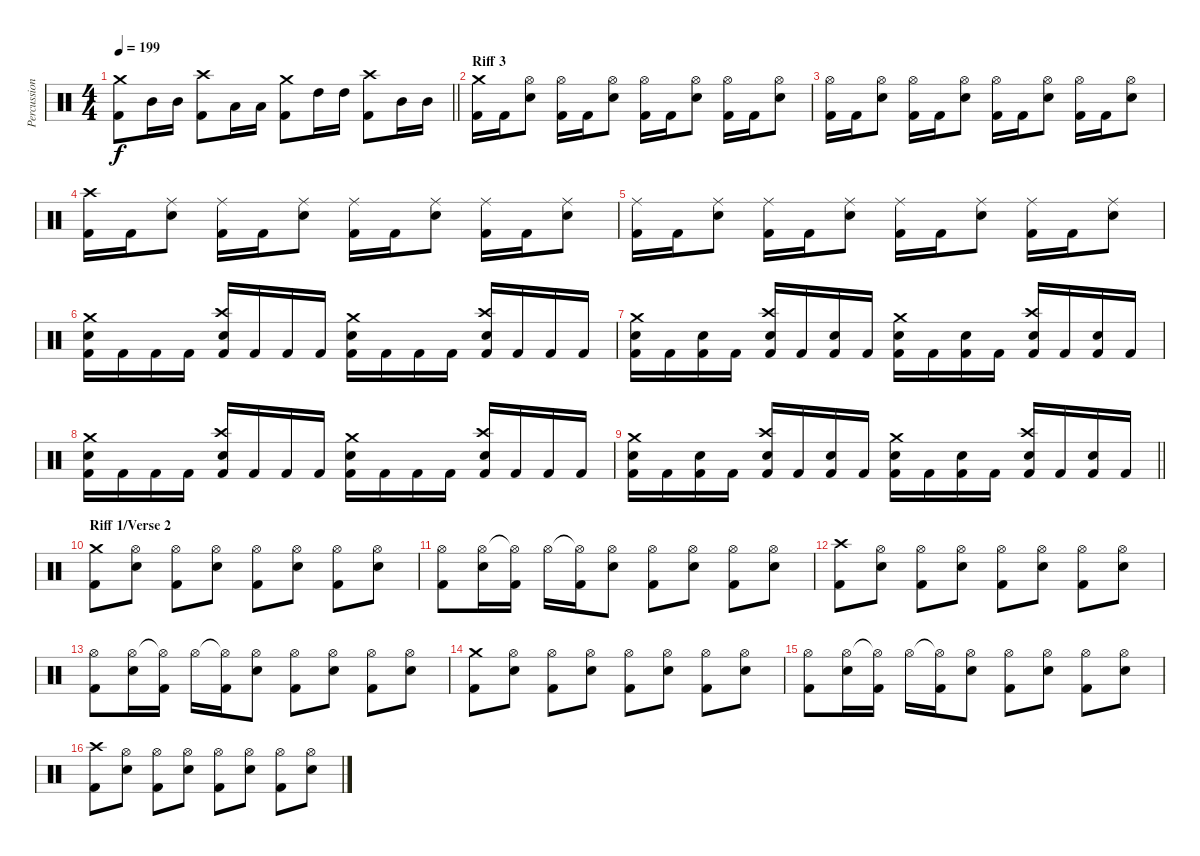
\track ("Percussion" "Percussion") {instrument percussion}
\staff {score}
\articulation defaults
\ts (4 4)
\tempo 199
\clef neutral
\barLineRight lightlight
\ks c
("Crash medium (hit)" "Kick (hit) 2").8{dy f} "Mid Tom (hit)".16 "Mid Tom (hit)".16 ("Crash high (hit)" "Kick (hit) 2").8 "Low Tom (hit)".16 "Low Tom (hit)".16 ("Crash medium (hit)" "Kick (hit) 2").8 "High Tom (hit)".16 "High Tom (hit)".16 ("Crash high (hit)" "Kick (hit) 2").8 "Mid Tom (hit)".16 "Mid Tom (hit)".16 |
\section ("" "Riff 3")
("Crash medium (hit)" "Kick (hit) 2").16 "Kick (hit) 2".16 ("Hi-Hat (open)" "Electric Snare (hit)").8 ("Hi-Hat (open)" "Kick (hit) 2").16 "Kick (hit) 2".16 ("Hi-Hat (open)" "Electric Snare (hit)").8 ("Hi-Hat (open)" "Kick (hit) 2").16 "Kick (hit) 2".16 ("Hi-Hat (open)" "Electric Snare (hit)").8 ("Hi-Hat (open)" "Kick (hit) 2").16 "Kick (hit) 2".16 ("Hi-Hat (open)" "Electric Snare (hit)").8 |
("Hi-Hat (open)" "Kick (hit) 2").16 "Kick (hit) 2".16 ("Hi-Hat (open)" "Electric Snare (hit)").8 ("Hi-Hat (open)" "Kick (hit) 2").16 "Kick (hit) 2".16 ("Hi-Hat (open)" "Electric Snare (hit)").8 ("Hi-Hat (open)" "Kick (hit) 2").16 "Kick (hit) 2".16 ("Hi-Hat (open)" "Electric Snare (hit)").8 ("Hi-Hat (open)" "Kick (hit) 2").16 "Kick (hit) 2".16 ("Hi-Hat (open)" "Electric Snare (hit)").8 |
("Crash high (hit)" "Kick (hit) 2").16 "Kick (hit) 2".16 ("Ride (middle)" "Electric Snare (hit)").8 ("Ride (middle)" "Kick (hit) 2").16 "Kick (hit) 2".16 ("Ride (middle)" "Electric Snare (hit)").8 ("Ride (middle)" "Kick (hit) 2").16 "Kick (hit) 2".16 ("Ride (middle)" "Electric Snare (hit)").8 ("Ride (middle)" "Kick (hit) 2").16 "Kick (hit) 2".16 ("Ride (middle)" "Electric Snare (hit)").8 |
("Ride (middle)" "Kick (hit) 2").16 "Kick (hit) 2".16 ("Ride (middle)" "Electric Snare (hit)").8 ("Ride (middle)" "Kick (hit) 2").16 "Kick (hit) 2".16 ("Ride (middle)" "Electric Snare (hit)").8 ("Ride (middle)" "Kick (hit) 2").16 "Kick (hit) 2".16 ("Ride (middle)" "Electric Snare (hit)").8 ("Ride (middle)" "Kick (hit) 2").16 "Kick (hit) 2".16 ("Ride (middle)" "Electric Snare (hit)").8 |
("Crash medium (hit)" "Electric Snare (hit)" "Kick (hit) 2").16 "Kick (hit) 2".16 "Kick (hit) 2".16 "Kick (hit) 2".16 ("Crash high (hit)" "Electric Snare (hit)" "Kick (hit) 2").16 "Kick (hit) 2".16 "Kick (hit) 2".16 "Kick (hit) 2".16 ("Crash medium (hit)" "Electric Snare (hit)" "Kick (hit) 2").16 "Kick (hit) 2".16 "Kick (hit) 2".16 "Kick (hit) 2".16 ("Crash high (hit)" "Electric Snare (hit)" "Kick (hit) 2").16 "Kick (hit) 2".16 "Kick (hit) 2".16 "Kick (hit) 2".16 |
("Crash medium (hit)" "Electric Snare (hit)" "Kick (hit) 2").16 "Kick (hit) 2".16 ("Electric Snare (hit)" "Kick (hit) 2").16 "Kick (hit) 2".16 ("Crash high (hit)" "Electric Snare (hit)" "Kick (hit) 2").16 "Kick (hit) 2".16 ("Electric Snare (hit)" "Kick (hit) 2").16 "Kick (hit) 2".16 ("Crash medium (hit)" "Electric Snare (hit)" "Kick (hit) 2").16 "Kick (hit) 2".16 ("Electric Snare (hit)" "Kick (hit) 2").16 "Kick (hit) 2".16 ("Crash high (hit)" "Electric Snare (hit)" "Kick (hit) 2").16 "Kick (hit) 2".16 ("Electric Snare (hit)" "Kick (hit) 2").16 "Kick (hit) 2".16 |
("Crash medium (hit)" "Electric Snare (hit)" "Kick (hit) 2").16 "Kick (hit) 2".16 "Kick (hit) 2".16 "Kick (hit) 2".16 ("Crash high (hit)" "Electric Snare (hit)" "Kick (hit) 2").16 "Kick (hit) 2".16 "Kick (hit) 2".16 "Kick (hit) 2".16 ("Crash medium (hit)" "Electric Snare (hit)" "Kick (hit) 2").16 "Kick (hit) 2".16 "Kick (hit) 2".16 "Kick (hit) 2".16 ("Crash high (hit)" "Electric Snare (hit)" "Kick (hit) 2").16 "Kick (hit) 2".16 "Kick (hit) 2".16 "Kick (hit) 2".16 |
\barLineRight lightlight
("Crash medium (hit)" "Electric Snare (hit)" "Kick (hit) 2").16 "Kick (hit) 2".16 ("Electric Snare (hit)" "Kick (hit) 2").16 "Kick (hit) 2".16 ("Crash high (hit)" "Electric Snare (hit)" "Kick (hit) 2").16 "Kick (hit) 2".16 ("Electric Snare (hit)" "Kick (hit) 2").16 "Kick (hit) 2".16 ("Crash medium (hit)" "Electric Snare (hit)" "Kick (hit) 2").16 "Kick (hit) 2".16 ("Electric Snare (hit)" "Kick (hit) 2").16 "Kick (hit) 2".16 ("Crash high (hit)" "Electric Snare (hit)" "Kick (hit) 2").16 "Kick (hit) 2".16 ("Electric Snare (hit)" "Kick (hit) 2").16 "Kick (hit) 2".16 |
\section ("" "Riff 1/Verse 2")
("Crash medium (hit)" "Kick (hit) 2").8 ("Hi-Hat (open)" "Electric Snare (hit)").8 ("Hi-Hat (open)" "Kick (hit) 2").8 ("Hi-Hat (open)" "Electric Snare (hit)").8 ("Hi-Hat (open)" "Kick (hit) 2").8 ("Hi-Hat (open)" "Electric Snare (hit)").8 ("Hi-Hat (open)" "Kick (hit) 2").8 ("Hi-Hat (open)" "Electric Snare (hit)").8 |
("Hi-Hat (open)" "Kick (hit) 2").8 ("Hi-Hat (open)" "Electric Snare (hit)").16 ("Hi-Hat (open)"{t} "Kick (hit) 2").16 "Hi-Hat (open)".16 ("Hi-Hat (open)"{t} "Kick (hit) 2").16 ("Hi-Hat (open)" "Electric Snare (hit)").8 ("Hi-Hat (open)" "Kick (hit) 2").8 ("Hi-Hat (open)" "Electric Snare (hit)").8 ("Hi-Hat (open)" "Kick (hit) 2").8 ("Hi-Hat (open)" "Electric Snare (hit)").8 |
("Crash high (hit)" "Kick (hit) 2").8 ("Hi-Hat (open)" "Electric Snare (hit)").8 ("Hi-Hat (open)" "Kick (hit) 2").8 ("Hi-Hat (open)" "Electric Snare (hit)").8 ("Hi-Hat (open)" "Kick (hit) 2").8 ("Hi-Hat (open)" "Electric Snare (hit)").8 ("Hi-Hat (open)" "Kick (hit) 2").8 ("Hi-Hat (open)" "Electric Snare (hit)").8 |
("Hi-Hat (open)" "Kick (hit) 2").8 ("Hi-Hat (open)" "Electric Snare (hit)").16 ("Hi-Hat (open)"{t} "Kick (hit) 2").16 "Hi-Hat (open)".16 ("Hi-Hat (open)"{t} "Kick (hit) 2").16 ("Hi-Hat (open)" "Electric Snare (hit)").8 ("Hi-Hat (open)" "Kick (hit) 2").8 ("Hi-Hat (open)" "Electric Snare (hit)").8 ("Hi-Hat (open)" "Kick (hit) 2").8 ("Hi-Hat (open)" "Electric Snare (hit)").8 |
("Crash medium (hit)" "Kick (hit) 2").8 ("Hi-Hat (open)" "Electric Snare (hit)").8 ("Hi-Hat (open)" "Kick (hit) 2").8 ("Hi-Hat (open)" "Electric Snare (hit)").8 ("Hi-Hat (open)" "Kick (hit) 2").8 ("Hi-Hat (open)" "Electric Snare (hit)").8 ("Hi-Hat (open)" "Kick (hit) 2").8 ("Hi-Hat (open)" "Electric Snare (hit)").8 |
("Hi-Hat (open)" "Kick (hit) 2").8 ("Hi-Hat (open)" "Electric Snare (hit)").16 ("Hi-Hat (open)"{t} "Kick (hit) 2").16 "Hi-Hat (open)".16 ("Hi-Hat (open)"{t} "Kick (hit) 2").16 ("Hi-Hat (open)" "Electric Snare (hit)").8 ("Hi-Hat (open)" "Kick (hit) 2").8 ("Hi-Hat (open)" "Electric Snare (hit)").8 ("Hi-Hat (open)" "Kick (hit) 2").8 ("Hi-Hat (open)" "Electric Snare (hit)").8 |
("Crash high (hit)" "Kick (hit) 2").8 ("Hi-Hat (open)" "Electric Snare (hit)").8 ("Hi-Hat (open)" "Kick (hit) 2").8 ("Hi-Hat (open)" "Electric Snare (hit)").8 ("Hi-Hat (open)" "Kick (hit) 2").8 ("Hi-Hat (open)" "Electric Snare (hit)").8 ("Hi-Hat (open)" "Kick (hit) 2").8 ("Hi-Hat (open)" "Electric Snare (hit)").8
